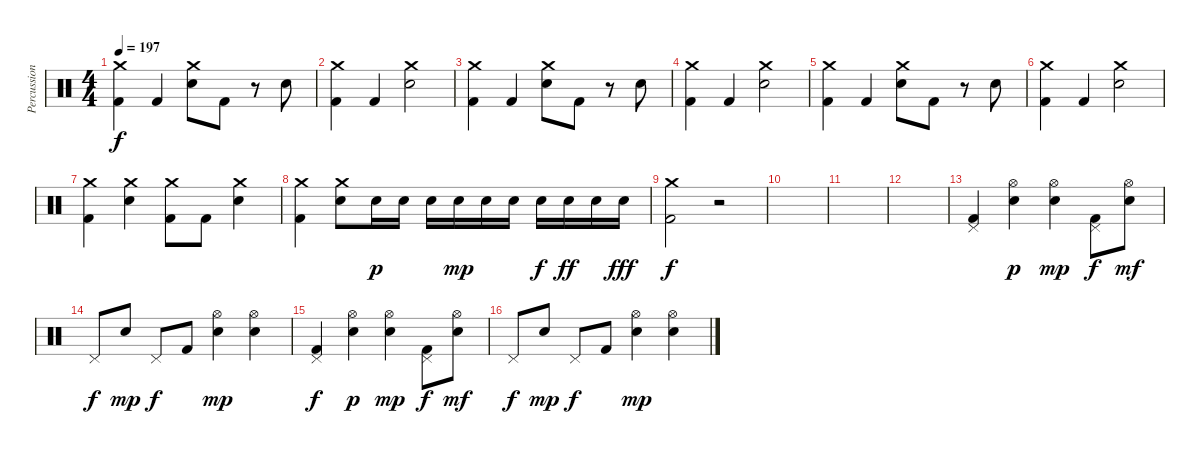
\track ("Percussion" "Percussion") {instrument percussion}
\staff {score}
\articulation defaults
\ts (4 4)
\tempo 197
\clef neutral
\ks c
("Crash medium (hit)" "Kick (hit) 2").4{dy f} "Kick (hit) 2".4 ("Crash medium (hit)" "Snare (hit) 2").8 "Kick (hit) 2".8 r.8 "Snare (hit) 2".8 |
("Crash medium (hit)" "Kick (hit) 2").4 "Kick (hit) 2".4 ("Crash medium (hit)" "Snare (hit) 2").2 |
("Crash medium (hit)" "Kick (hit) 2").4 "Kick (hit) 2".4 ("Crash medium (hit)" "Snare (hit) 2").8 "Kick (hit) 2".8 r.8 "Snare (hit) 2".8 |
("Crash medium (hit)" "Kick (hit) 2").4 "Kick (hit) 2".4 ("Crash medium (hit)" "Snare (hit) 2").2 |
("Crash medium (hit)" "Kick (hit) 2").4 "Kick (hit) 2".4 ("Crash medium (hit)" "Snare (hit) 2").8 "Kick (hit) 2".8 r.8 "Snare (hit) 2".8 |
("Crash medium (hit)" "Kick (hit) 2").4 "Kick (hit) 2".4 ("Crash medium (hit)" "Snare (hit) 2").2 |
("Crash medium (hit)" "Kick (hit) 2").4 ("Crash medium (hit)" "Snare (hit) 2").4 ("Crash medium (hit)" "Kick (hit) 2").8 "Kick (hit) 2".8 ("Crash medium (hit)" "Snare (hit) 2").4 |
("Crash medium (hit)" "Kick (hit) 2").4 ("Crash medium (hit)" "Snare (hit) 2").8 "Snare (hit) 2".16{dy p} "Snare (hit) 2".16 "Snare (hit) 2".16 "Snare (hit) 2".16{dy mp} "Snare (hit) 2".16 "Snare (hit) 2".16 "Snare (hit) 2".16{dy f} "Snare (hit) 2".16{dy ff} "Snare (hit) 2".16 "Snare (hit) 2".16{dy fff} |
("Crash medium (hit)" "Kick (hit) 2").2{dy f} r.2 |
|
|
|
("Pedal Hi-Hat (hit)" "Kick (hit) 2").4 ("Hi-Hat (open)" "Snare (hit) 2").4{dy p} ("Hi-Hat (open)" "Snare (hit) 2").4{dy mp} ("Pedal Hi-Hat (hit)" "Kick (hit) 2").8{dy f} ("Hi-Hat (open)" "Snare (hit) 2").8{dy mf} |
"Pedal Hi-Hat (hit)".8{dy f} "Snare (hit) 2".8{dy mp} "Pedal Hi-Hat (hit)".8{dy f} "Kick (hit) 2".8 ("Hi-Hat (open)" "Snare (hit) 2").4{dy mp} ("Hi-Hat (open)" "Snare (hit) 2").4 |
("Pedal Hi-Hat (hit)" "Kick (hit) 2").4{dy f} ("Hi-Hat (open)" "Snare (hit) 2").4{dy p} ("Hi-Hat (open)" "Snare (hit) 2").4{dy mp} ("Pedal Hi-Hat (hit)" "Kick (hit) 2").8{dy f} ("Hi-Hat (open)" "Snare (hit) 2").8{dy mf} |
"Pedal Hi-Hat (hit)".8{dy f} "Snare (hit) 2".8{dy mp} "Pedal Hi-Hat (hit)".8{dy f} "Kick (hit) 2".8 ("Hi-Hat (open)" "Snare (hit) 2").4{dy mp} ("Hi-Hat (open)" "Snare (hit) 2").4
